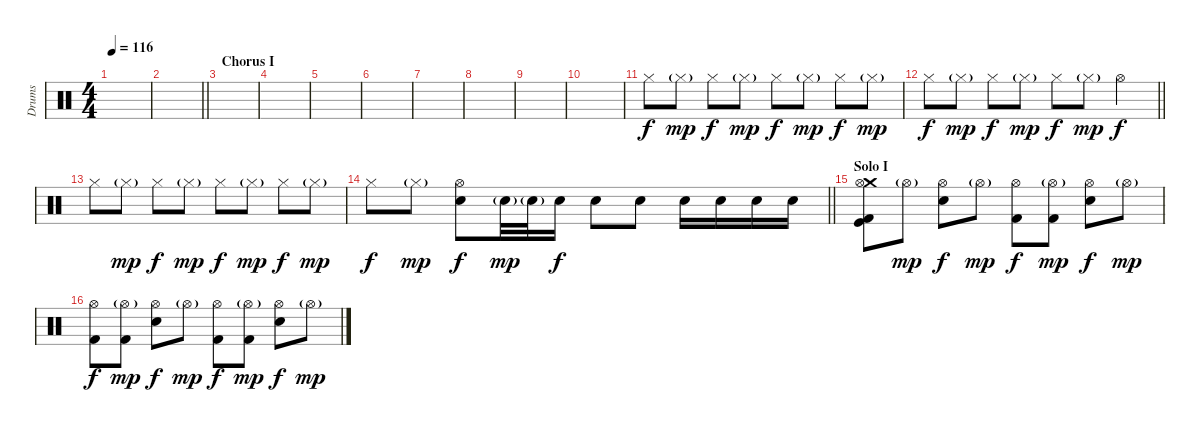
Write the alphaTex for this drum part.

\track ("Drums" "Drums") {instrument percussion}
\staff {score}
\articulation defaults
\ts (4 4)
\tempo 116
\clef neutral
\ks c
|
\barLineRight lightlight
|
\section ("" "Chorus I")
|
|
|
|
|
|
|
|
"Hi-Hat (closed)".8 "Hi-Hat (closed)"{g}.8{dy mp} "Hi-Hat (closed)".8{dy f} "Hi-Hat (closed)"{g}.8{dy mp} "Hi-Hat (closed)".8{dy f} "Hi-Hat (closed)"{g}.8{dy mp} "Hi-Hat (closed)".8{dy f} "Hi-Hat (closed)"{g}.8{dy mp} |
\barLineRight lightlight "Hi-Hat (closed)".8{dy f} "Hi-Hat (closed)"{g}.8{dy mp} "Hi-Hat (closed)".8{dy f} "Hi-Hat (closed)"{g}.8{dy mp} "Hi-Hat (closed)".8{dy f} "Hi-Hat (closed)"{g}.8{dy mp} "Hi-Hat (open)".4{dy f}
|
"Hi-Hat (closed)".8 "Hi-Hat (closed)"{g}.8{dy mp} "Hi-Hat (closed)".8{dy f} "Hi-Hat (closed)"{g}.8{dy mp} "Hi-Hat (closed)".8{dy f} "Hi-Hat (closed)"{g}.8{dy mp} "Hi-Hat (closed)".8{dy f} "Hi-Hat (closed)"{g}.8{dy mp} |
\barLineRight lightlight "Hi-Hat (closed)".8{dy f} "Hi-Hat (closed)"{g}.8{dy mp}
("Hi-Hat (open)" "Electric Snare (hit)").8{dy f} "Electric Snare (hit)"{g}.32{dy mp} "Electric Snare (hit)"{g}.32 "Electric Snare (hit)".16{dy f} "Electric Snare (hit)".8 "Electric Snare (hit)".8 "Electric Snare (hit)".16 "Electric Snare (hit)".16 "Electric Snare (hit)".16 "Electric Snare (hit)".16 |
\section ("" "Solo I")
("Crash medium (hit)" "Hi-Hat (open)" "Kick (hit)" "Kick (hit) 2").8 "Hi-Hat (open)"{g}.8{dy mp} ("Hi-Hat (open)" "Electric Snare (hit)").8{dy f} "Hi-Hat (open)"{g}.8{dy mp} ("Hi-Hat (open)" "Kick (hit) 2").8{dy f} ("Hi-Hat (open)"{g} "Kick (hit) 2").8{dy mp} ("Hi-Hat (open)" "Electric Snare (hit)").8{dy f} "Hi-Hat (open)"{g}.8{dy mp} |
("Hi-Hat (open)" "Kick (hit) 2").8{dy f} ("Hi-Hat (open)"{g} "Kick (hit) 2").8{dy mp} ("Hi-Hat (open)" "Electric Snare (hit)").8{dy f} "Hi-Hat (open)"{g}.8{dy mp} ("Hi-Hat (open)" "Kick (hit) 2").8{dy f} ("Hi-Hat (open)"{g} "Kick (hit) 2").8{dy mp} ("Hi-Hat (open)" "Electric Snare (hit)").8{dy f} "Hi-Hat (open)"{g}.8{dy mp}
